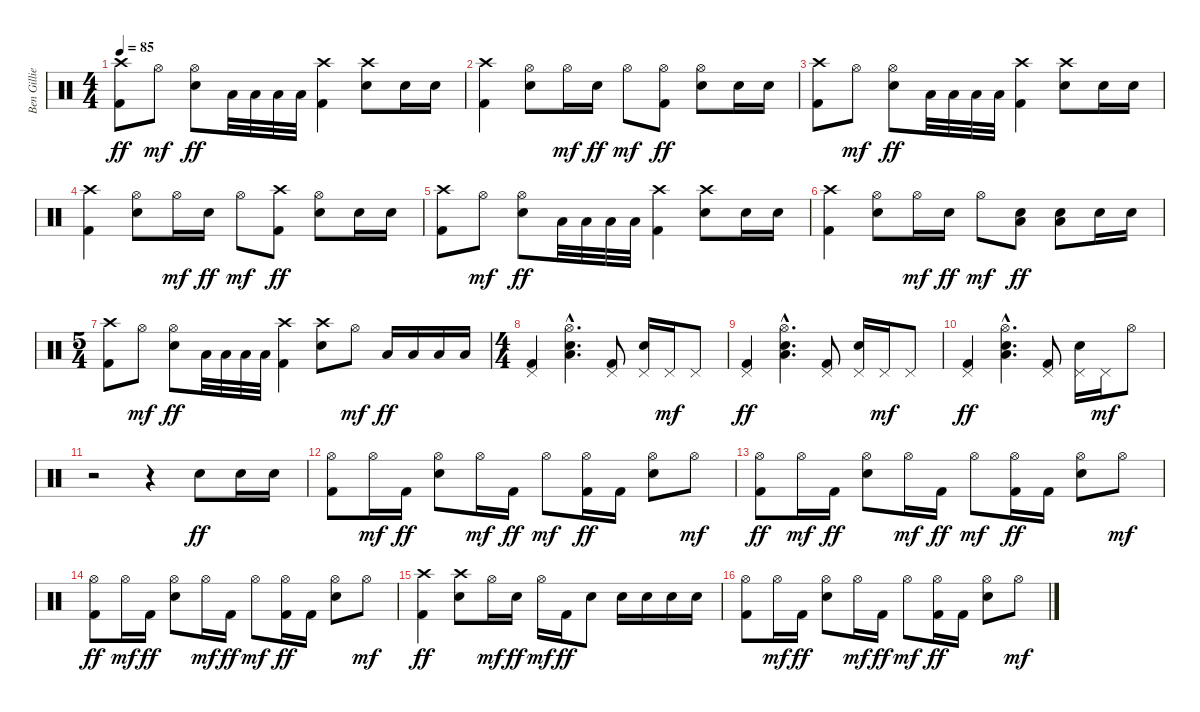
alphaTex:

\track ("Ben Gillies" "Ben Gillie") {instrument percussion}
\staff {score}
\articulation defaults
\ts (4 4)
\tempo 85
\clef neutral
\ks c
("Crash high (hit)" "Kick (hit) 2").8{dy ff} "Hi-Hat (open)".8{dy mf} ("Hi-Hat (open)" "Electric Snare (hit)").8{dy ff} "Low Tom (hit)".32 "Low Tom (hit)".32 "Low Tom (hit)".32 "Low Tom (hit)".32 ("Crash high (hit)" "Kick (hit) 2").4 ("Crash high (hit)" "Electric Snare (hit)").8 "Electric Snare (hit)".16 "Electric Snare (hit)".16 |
("Crash high (hit)" "Kick (hit) 2").4 ("Hi-Hat (open)" "Electric Snare (hit)").8 "Hi-Hat (open)".16{dy mf} "Electric Snare (hit)".16{dy ff} "Hi-Hat (open)".8{dy mf} ("Hi-Hat (open)" "Kick (hit) 2").8{dy ff} ("Hi-Hat (open)" "Electric Snare (hit)").8 "Electric Snare (hit)".16 "Electric Snare (hit)".16 |
("Crash high (hit)" "Kick (hit) 2").8 "Hi-Hat (open)".8{dy mf} ("Hi-Hat (open)" "Electric Snare (hit)").8{dy ff} "Low Tom (hit)".32 "Low Tom (hit)".32 "Low Tom (hit)".32 "Low Tom (hit)".32 ("Crash high (hit)" "Kick (hit) 2").4 ("Crash high (hit)" "Electric Snare (hit)").8 "Electric Snare (hit)".16 "Electric Snare (hit)".16 |
("Crash high (hit)" "Kick (hit) 2").4 ("Hi-Hat (open)" "Electric Snare (hit)").8 "Hi-Hat (open)".16{dy mf} "Electric Snare (hit)".16{dy ff} "Hi-Hat (open)".8{dy mf} ("Crash high (hit)" "Kick (hit) 2").8{dy ff} ("Hi-Hat (open)" "Electric Snare (hit)").8 "Electric Snare (hit)".16 "Electric Snare (hit)".16 |
("Crash high (hit)" "Kick (hit) 2").8 "Hi-Hat (open)".8{dy mf} ("Hi-Hat (open)" "Electric Snare (hit)").8{dy ff} "Low Tom (hit)".32 "Low Tom (hit)".32 "Low Tom (hit)".32 "Low Tom (hit)".32 ("Crash high (hit)" "Kick (hit) 2").4 ("Crash high (hit)" "Electric Snare (hit)").8 "Electric Snare (hit)".16 "Electric Snare (hit)".16 |
("Crash high (hit)" "Kick (hit) 2").4 ("Hi-Hat (open)" "Electric Snare (hit)").8 "Hi-Hat (open)".16{dy mf} "Electric Snare (hit)".16{dy ff} "Hi-Hat (open)".8{dy mf} ("Low Tom (hit)" "Electric Snare (hit)").8{dy ff} ("Low Tom (hit)" "Electric Snare (hit)").8 "Electric Snare (hit)".16 "Electric Snare (hit)".16 |
\ts (5 4)
("Crash high (hit)" "Kick (hit) 2").8 "Hi-Hat (open)".8{dy mf} ("Hi-Hat (open)" "Electric Snare (hit)").8{dy ff} "Low Tom (hit)".32 "Low Tom (hit)".32 "Low Tom (hit)".32 "Low Tom (hit)".32 ("Crash high (hit)" "Kick (hit) 2").4 ("Crash high (hit)" "Electric Snare (hit)").8 "Hi-Hat (open)".8{dy mf} "Low Floor Tom (hit)".16{dy ff} "Low Floor Tom (hit)".16 "Low Floor Tom (hit)".16 "Low Floor Tom (hit)".16 |
\ts (4 4)
("Pedal Hi-Hat (hit)" "Kick (hit) 2").4 ("Low Floor Tom (hit)"{hac} "Hi-Hat (open)"{hac} "Electric Snare (hit)"{hac}).4{d} ("Pedal Hi-Hat (hit)" "Kick (hit) 2").8 ("Pedal Hi-Hat (hit)" "Electric Snare (hit)").16 "Pedal Hi-Hat (hit)".16{dy mf} "Pedal Hi-Hat (hit)".8 |
("Pedal Hi-Hat (hit)" "Kick (hit) 2").4{dy ff} ("Low Floor Tom (hit)"{hac} "Hi-Hat (open)"{hac} "Electric Snare (hit)"{hac}).4{d} ("Pedal Hi-Hat (hit)" "Kick (hit) 2").8 ("Pedal Hi-Hat (hit)" "Electric Snare (hit)").16 "Pedal Hi-Hat (hit)".16{dy mf} "Pedal Hi-Hat (hit)".8 |
("Pedal Hi-Hat (hit)" "Kick (hit) 2").4{dy ff} ("Low Floor Tom (hit)"{hac} "Hi-Hat (open)"{hac} "Electric Snare (hit)"{hac}).4{d} ("Pedal Hi-Hat (hit)" "Kick (hit) 2").8 ("Pedal Hi-Hat (hit)" "Electric Snare (hit)").16 "Pedal Hi-Hat (hit)".16{dy mf} "Hi-Hat (open)".8 |
r.2 r.4 "Electric Snare (hit)".8{dy ff} "Electric Snare (hit)".16 "Electric Snare (hit)".16 |
("Hi-Hat (open)" "Kick (hit) 2").8 "Hi-Hat (open)".16{dy mf} "Kick (hit) 2".16{dy ff} ("Hi-Hat (open)" "Electric Snare (hit)").8 "Hi-Hat (open)".16{dy mf} "Kick (hit) 2".16{dy ff} "Hi-Hat (open)".8{dy mf} ("Hi-Hat (open)" "Kick (hit) 2").16{dy ff} "Kick (hit) 2".16 ("Hi-Hat (open)" "Electric Snare (hit)").8 "Hi-Hat (open)".8{dy mf} |
("Hi-Hat (open)" "Kick (hit) 2").8{dy ff} "Hi-Hat (open)".16{dy mf} "Kick (hit) 2".16{dy ff} ("Hi-Hat (open)" "Electric Snare (hit)").8 "Hi-Hat (open)".16{dy mf} "Kick (hit) 2".16{dy ff} "Hi-Hat (open)".8{dy mf} ("Hi-Hat (open)" "Kick (hit) 2").16{dy ff} "Kick (hit) 2".16 ("Hi-Hat (open)" "Electric Snare (hit)").8 "Hi-Hat (open)".8{dy mf} |
("Hi-Hat (open)" "Kick (hit) 2").8{dy ff} "Hi-Hat (open)".16{dy mf} "Kick (hit) 2".16{dy ff} ("Hi-Hat (open)" "Electric Snare (hit)").8 "Hi-Hat (open)".16{dy mf} "Kick (hit) 2".16{dy ff} "Hi-Hat (open)".8{dy mf} ("Hi-Hat (open)" "Kick (hit) 2").16{dy ff} "Kick (hit) 2".16 ("Hi-Hat (open)" "Electric Snare (hit)").8 "Hi-Hat (open)".8{dy mf} |
("Crash high (hit)" "Kick (hit) 2").4{dy ff} ("Crash high (hit)" "Electric Snare (hit)").8 "Hi-Hat (open)".16{dy mf} "Electric Snare (hit)".16{dy ff} "Hi-Hat (open)".16{dy mf} "Kick (hit) 2".16{dy ff} "Electric Snare (hit)".8 "Electric Snare (hit)".16 "Electric Snare (hit)".16 "Electric Snare (hit)".16 "Electric Snare (hit)".16 |
("Hi-Hat (open)" "Kick (hit) 2").8 "Hi-Hat (open)".16{dy mf} "Kick (hit) 2".16{dy ff} ("Hi-Hat (open)" "Electric Snare (hit)").8 "Hi-Hat (open)".16{dy mf} "Kick (hit) 2".16{dy ff} "Hi-Hat (open)".8{dy mf} ("Hi-Hat (open)" "Kick (hit) 2").16{dy ff} "Kick (hit) 2".16 ("Hi-Hat (open)" "Electric Snare (hit)").8 "Hi-Hat (open)".8{dy mf}
